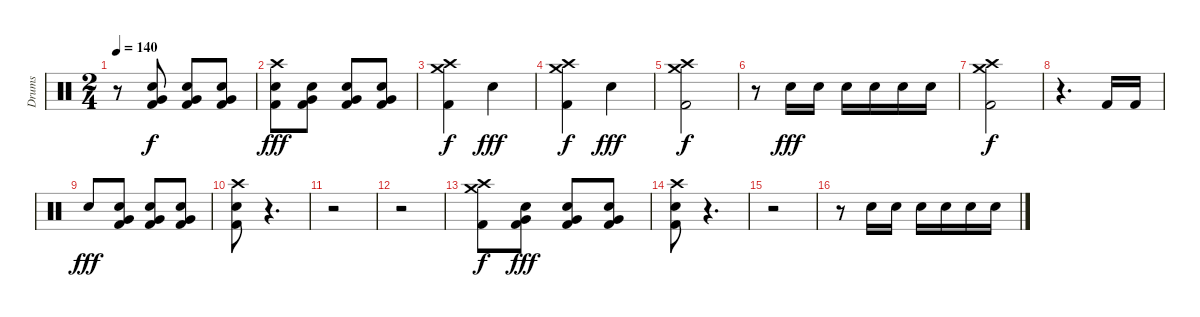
\track ("Drums" "Drums") {instrument percussion}
\staff {score}
\articulation defaults
\ts (2 4)
\tempo 140
\clef neutral
\ks c
r.8{dy fff} ("Snare (hit) 2" "Very Low Tom (hit)" "Kick (hit) 2").8{dy f} ("Snare (hit) 2" "Very Low Tom (hit)" "Kick (hit) 2").8 ("Snare (hit) 2" "Very Low Tom (hit)" "Kick (hit) 2").8 |
("Crash high (hit)" "Snare (hit) 2" "Kick (hit) 2").8{dy fff} ("Snare (hit) 2" "Very Low Tom (hit)" "Kick (hit) 2").8 ("Snare (hit) 2" "Very Low Tom (hit)" "Kick (hit) 2").8 ("Snare (hit) 2" "Very Low Tom (hit)" "Kick (hit) 2").8 |
("Crash high (hit)" "Crash medium (hit)" "Kick (hit) 2").4{dy f} "Snare (hit) 2".4{dy fff} |
("Crash high (hit)" "Crash medium (hit)" "Kick (hit) 2").4{dy f} "Snare (hit) 2".4{dy fff} |
("Crash high (hit)" "Crash medium (hit)" "Kick (hit) 2").2{dy f} |
r.8 "Snare (hit) 2".16{dy fff} "Snare (hit) 2".16 "Snare (hit) 2".16 "Snare (hit) 2".16 "Snare (hit) 2".16 "Snare (hit) 2".16 |
("Crash high (hit)" "Crash medium (hit)" "Kick (hit) 2").2{dy f} |
r.4{d} "Kick (hit) 2".16 "Kick (hit) 2".16 |
"Snare (hit) 2".8{dy fff} ("Snare (hit) 2" "Very Low Tom (hit)" "Kick (hit) 2").8 ("Snare (hit) 2" "Very Low Tom (hit)" "Kick (hit) 2").8 ("Snare (hit) 2" "Very Low Tom (hit)" "Kick (hit) 2").8 |
("Crash high (hit)" "Snare (hit) 2" "Kick (hit) 2").8 r.4{d} |
r.2 |
r.2 |
("Crash high (hit)" "Crash medium (hit)" "Kick (hit) 2").8{dy f} ("Snare (hit) 2" "Very Low Tom (hit)" "Kick (hit) 2").8{dy fff} ("Snare (hit) 2" "Very Low Tom (hit)" "Kick (hit) 2").8 ("Snare (hit) 2" "Very Low Tom (hit)" "Kick (hit) 2").8 |
("Crash high (hit)" "Snare (hit) 2" "Kick (hit) 2").8 r.4{d} |
r.2 |
r.8 "Snare (hit) 2".16 "Snare (hit) 2".16 "Snare (hit) 2".16 "Snare (hit) 2".16 "Snare (hit) 2".16 "Snare (hit) 2".16
